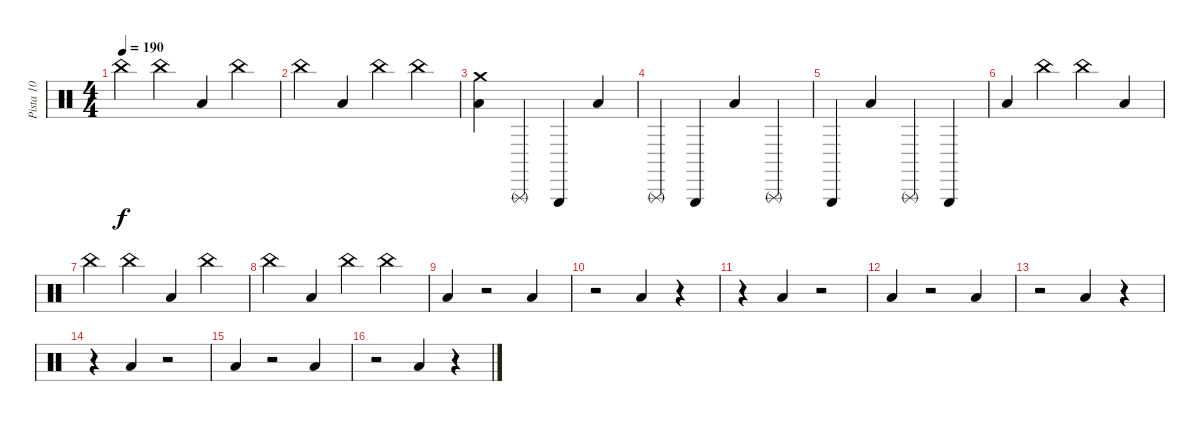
\track ("Pista 10" "Pista 10") {instrument percussion}
\staff {score}
\articulation defaults
\ts (4 4)
\tempo 190
\clef neutral
\ks c "China (hit)".4{dy f} "China (hit)".4 "Low Floor Tom (hit)".4 "China (hit)".4
|
"China (hit)".4 "Low Floor Tom (hit)".4 "China (hit)".4 "China (hit)".4 |
("Crash medium (hit)" "Low Floor Tom (hit)").4 "Triangle (rnute)".4 "Triangle (hit)".4 "Low Floor Tom (hit)".4 |
"Triangle (rnute)".4 "Triangle (hit)".4 "Low Floor Tom (hit)".4 "Triangle (rnute)".4 |
"Triangle (hit)".4 "Low Floor Tom (hit)".4 "Triangle (rnute)".4 "Triangle (hit)".4 |
"Low Floor Tom (hit)".4 "China (hit)".4 "China (hit)".4 "Low Floor Tom (hit)".4 |
"China (hit)".4 "China (hit)".4 "Low Floor Tom (hit)".4 "China (hit)".4 |
"China (hit)".4 "Low Floor Tom (hit)".4 "China (hit)".4 "China (hit)".4 |
"Low Floor Tom (hit)".4 r.2 "Low Floor Tom (hit)".4 |
r.2 "Low Floor Tom (hit)".4 r.4 |
r.4 "Low Floor Tom (hit)".4 r.2 |
"Low Floor Tom (hit)".4 r.2 "Low Floor Tom (hit)".4 |
r.2 "Low Floor Tom (hit)".4 r.4 |
r.4 "Low Floor Tom (hit)".4 r.2 |
"Low Floor Tom (hit)".4 r.2 "Low Floor Tom (hit)".4 |
r.2 "Low Floor Tom (hit)".4 r.4
